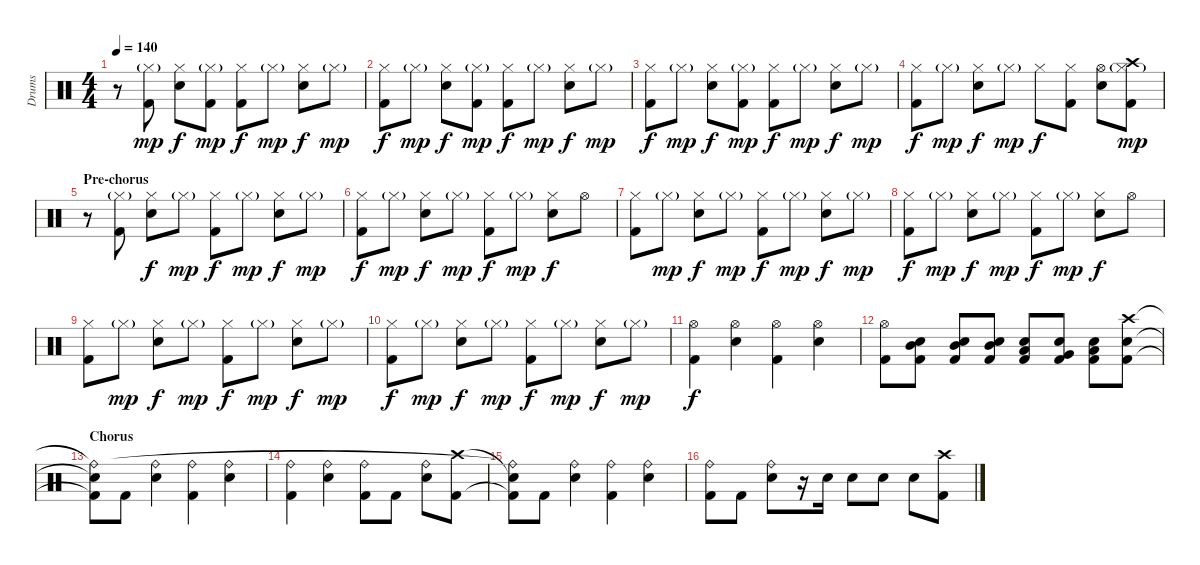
\track ("Drums" "Drums") {instrument percussion}
\staff {score}
\articulation defaults
\ts (4 4)
\tempo 140
\clef neutral
\ks c
r.8{dy mp} ("Hi-Hat (closed)"{g} "Kick (hit) 2").8 ("Hi-Hat (closed)" "Electric Snare (hit)").8{dy f} ("Hi-Hat (closed)"{g} "Kick (hit) 2").8{dy mp} ("Hi-Hat (closed)" "Kick (hit) 2").8{dy f} "Hi-Hat (closed)"{g}.8{dy mp} ("Hi-Hat (closed)" "Electric Snare (hit)").8{dy f} "Hi-Hat (closed)"{g}.8{dy mp} |
("Hi-Hat (closed)" "Kick (hit) 2").8{dy f} "Hi-Hat (closed)"{g}.8{dy mp} ("Hi-Hat (closed)" "Electric Snare (hit)").8{dy f} ("Hi-Hat (closed)"{g} "Kick (hit) 2").8{dy mp} ("Hi-Hat (closed)" "Kick (hit) 2").8{dy f} "Hi-Hat (closed)"{g}.8{dy mp} ("Hi-Hat (closed)" "Electric Snare (hit)").8{dy f} "Hi-Hat (closed)"{g}.8{dy mp} |
("Hi-Hat (closed)" "Kick (hit) 2").8{dy f} "Hi-Hat (closed)"{g}.8{dy mp} ("Hi-Hat (closed)" "Electric Snare (hit)").8{dy f} ("Hi-Hat (closed)"{g} "Kick (hit) 2").8{dy mp} ("Hi-Hat (closed)" "Kick (hit) 2").8{dy f} "Hi-Hat (closed)"{g}.8{dy mp} ("Hi-Hat (closed)" "Electric Snare (hit)").8{dy f} "Hi-Hat (closed)"{g}.8{dy mp} |
("Hi-Hat (closed)" "Kick (hit) 2").8{dy f} "Hi-Hat (closed)"{g}.8{dy mp} ("Hi-Hat (closed)" "Electric Snare (hit)").8{dy f} "Hi-Hat (closed)"{g}.8{dy mp} "Hi-Hat (closed)".8{dy f} ("Hi-Hat (closed)" "Kick (hit) 2").8 ("Hi-Hat (open)" "Electric Snare (hit)").8 ("Hi-Hat (closed)"{g} "Kick (hit) 2" "Crash high (hit)").8{dy mp} |
\section ("" "Pre-chorus")
r.8 ("Hi-Hat (closed)"{g} "Kick (hit) 2").8 ("Hi-Hat (closed)" "Electric Snare (hit)").8{dy f} "Hi-Hat (closed)"{g}.8{dy mp} ("Hi-Hat (closed)" "Kick (hit) 2").8{dy f} "Hi-Hat (closed)"{g}.8{dy mp} ("Hi-Hat (closed)" "Electric Snare (hit)").8{dy f} "Hi-Hat (closed)"{g}.8{dy mp} |
("Hi-Hat (closed)" "Kick (hit) 2").8{dy f} "Hi-Hat (closed)"{g}.8{dy mp} ("Hi-Hat (closed)" "Electric Snare (hit)").8{dy f} "Hi-Hat (closed)"{g}.8{dy mp} ("Hi-Hat (closed)" "Kick (hit) 2").8{dy f} "Hi-Hat (closed)"{g}.8{dy mp} ("Hi-Hat (closed)" "Electric Snare (hit)").8{dy f} "Hi-Hat (open)".8 |
("Hi-Hat (closed)" "Kick (hit) 2").8 "Hi-Hat (closed)"{g}.8{dy mp} ("Hi-Hat (closed)" "Electric Snare (hit)").8{dy f} "Hi-Hat (closed)"{g}.8{dy mp} ("Hi-Hat (closed)" "Kick (hit) 2").8{dy f} "Hi-Hat (closed)"{g}.8{dy mp} ("Hi-Hat (closed)" "Electric Snare (hit)").8{dy f} "Hi-Hat (closed)"{g}.8{dy mp} |
("Hi-Hat (closed)" "Kick (hit) 2").8{dy f} "Hi-Hat (closed)"{g}.8{dy mp} ("Hi-Hat (closed)" "Electric Snare (hit)").8{dy f} "Hi-Hat (closed)"{g}.8{dy mp} ("Hi-Hat (closed)" "Kick (hit) 2").8{dy f} "Hi-Hat (closed)"{g}.8{dy mp} ("Hi-Hat (closed)" "Electric Snare (hit)").8{dy f} "Hi-Hat (open)".8 |
("Hi-Hat (closed)" "Kick (hit) 2").8 "Hi-Hat (closed)"{g}.8{dy mp} ("Hi-Hat (closed)" "Electric Snare (hit)").8{dy f} "Hi-Hat (closed)"{g}.8{dy mp} ("Hi-Hat (closed)" "Kick (hit) 2").8{dy f} "Hi-Hat (closed)"{g}.8{dy mp} ("Hi-Hat (closed)" "Electric Snare (hit)").8{dy f} "Hi-Hat (closed)"{g}.8{dy mp} |
("Hi-Hat (closed)" "Kick (hit) 2").8{dy f} "Hi-Hat (closed)"{g}.8{dy mp} ("Hi-Hat (closed)" "Electric Snare (hit)").8{dy f} "Hi-Hat (closed)"{g}.8{dy mp} ("Hi-Hat (closed)" "Kick (hit) 2").8{dy f} "Hi-Hat (closed)"{g}.8{dy mp} ("Hi-Hat (closed)" "Electric Snare (hit)").8{dy f} "Hi-Hat (closed)"{g}.8{dy mp} |
("Hi-Hat (open)" "Kick (hit) 2").4{dy f} ("Hi-Hat (open)" "Electric Snare (hit)").4 ("Hi-Hat (open)" "Kick (hit) 2").4 ("Hi-Hat (open)" "Electric Snare (hit)").4 |
("Hi-Hat (open)" "Kick (hit) 2").8 ("Kick (hit) 2" "Electric Snare (hit)" "Mid Tom (hit)").8 ("Kick (hit) 2" "Electric Snare (hit)" "Mid Tom (hit)").8 ("Kick (hit) 2" "Electric Snare (hit)" "Mid Tom (hit)").8 ("Low Tom (hit)" "Electric Snare (hit)" "Kick (hit) 2").8 ("Very Low Tom (hit)" "Electric Snare (hit)" "Kick (hit) 2").8 ("Low Floor Tom (hit)" "Electric Snare (hit)" "Kick (hit) 2").8 ("Kick (hit) 2" "Electric Snare (hit)" "Crash high (hit)").8 |
\section ("" "Chorus")
("Kick (hit) 2"{t} "Snare (hit)"{t} "Ride (bell)"{t}).8 "Kick (hit) 2".8 ("Electric Snare (hit)" "Ride (bell)").4 ("Kick (hit) 2" "Ride (bell)").4 ("Electric Snare (hit)" "Ride (bell)").4 |
("Kick (hit) 2" "Ride (bell)").4 ("Electric Snare (hit)" "Ride (bell)").4 ("Kick (hit) 2" "Ride (bell)").8 "Kick (hit) 2".8 ("Electric Snare (hit)" "Ride (bell)").8 ("Kick (hit) 2" "Crash high (hit)").8 |
("Kick (hit) 2"{t} "Snare (hit)"{t} "Ride (bell)"{t}).8 "Kick (hit) 2".8 ("Electric Snare (hit)" "Ride (bell)").4 ("Kick (hit) 2" "Ride (bell)").4 ("Electric Snare (hit)" "Ride (bell)").4 |
("Kick (hit) 2" "Ride (bell)").8 "Kick (hit) 2".8 ("Electric Snare (hit)" "Ride (bell)").8 r.16 "Electric Snare (hit)".16 "Electric Snare (hit)".8 "Electric Snare (hit)".8 "Electric Snare (hit)".8 ("Kick (hit) 2" "Crash high (hit)").8
